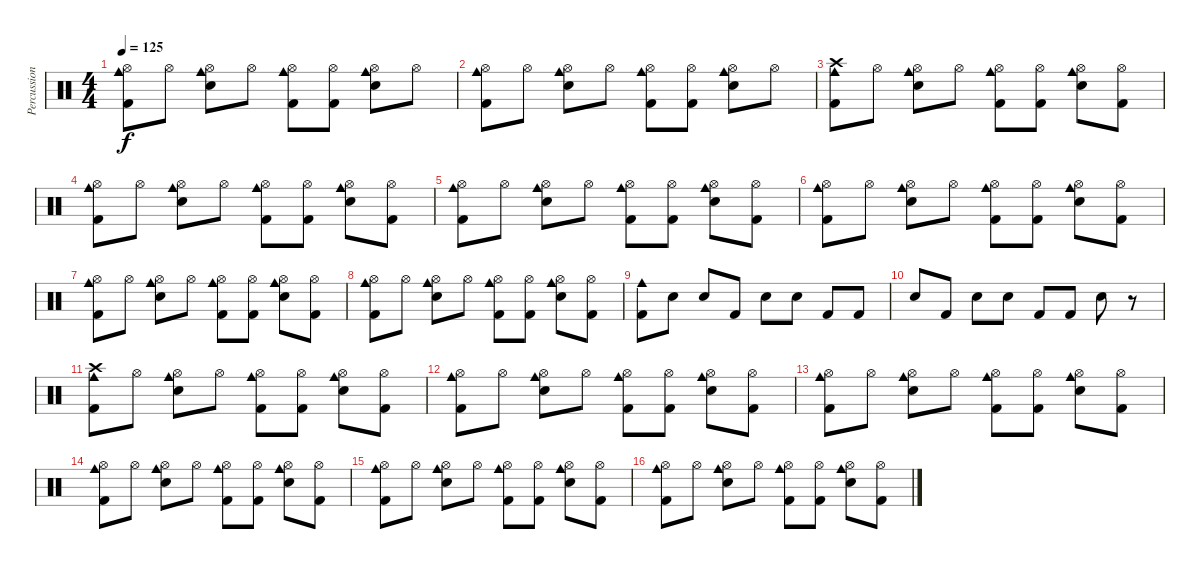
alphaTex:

\track ("Percussion" "Percussion") {instrument percussion}
\staff {score}
\articulation defaults
\ts (4 4)
\tempo 125
\clef neutral
\ks c
("Hi-Hat (open)" "Cowbell medium (hit)" "Kick (hit) 2").8{dy f} "Hi-Hat (open)".8 ("Hi-Hat (open)" "Snare (hit) 2" "Cowbell medium (hit)").8 "Hi-Hat (open)".8 ("Hi-Hat (open)" "Cowbell medium (hit)" "Kick (hit) 2").8 ("Hi-Hat (open)" "Kick (hit) 2").8 ("Hi-Hat (open)" "Snare (hit) 2" "Cowbell medium (hit)").8 "Hi-Hat (open)".8 |
("Hi-Hat (open)" "Cowbell medium (hit)" "Kick (hit) 2").8 "Hi-Hat (open)".8 ("Hi-Hat (open)" "Snare (hit) 2" "Cowbell medium (hit)").8 "Hi-Hat (open)".8 ("Hi-Hat (open)" "Cowbell medium (hit)" "Kick (hit) 2").8 ("Hi-Hat (open)" "Kick (hit) 2").8 ("Hi-Hat (open)" "Snare (hit) 2" "Cowbell medium (hit)").8 "Hi-Hat (open)".8 |
("Crash high (hit)" "Cowbell medium (hit)" "Kick (hit) 2").8 "Hi-Hat (open)".8 ("Hi-Hat (open)" "Snare (hit) 2" "Cowbell medium (hit)").8 "Hi-Hat (open)".8 ("Hi-Hat (open)" "Cowbell medium (hit)" "Kick (hit) 2").8 ("Hi-Hat (open)" "Kick (hit) 2").8 ("Hi-Hat (open)" "Snare (hit) 2" "Cowbell medium (hit)").8 ("Hi-Hat (open)" "Kick (hit) 2").8 |
("Hi-Hat (open)" "Cowbell medium (hit)" "Kick (hit) 2").8 "Hi-Hat (open)".8 ("Hi-Hat (open)" "Snare (hit) 2" "Cowbell medium (hit)").8 "Hi-Hat (open)".8 ("Hi-Hat (open)" "Cowbell medium (hit)" "Kick (hit) 2").8 ("Hi-Hat (open)" "Kick (hit) 2").8 ("Hi-Hat (open)" "Snare (hit) 2" "Cowbell medium (hit)").8 ("Hi-Hat (open)" "Kick (hit) 2").8 |
("Hi-Hat (open)" "Cowbell medium (hit)" "Kick (hit) 2").8 "Hi-Hat (open)".8 ("Hi-Hat (open)" "Snare (hit) 2" "Cowbell medium (hit)").8 "Hi-Hat (open)".8 ("Hi-Hat (open)" "Cowbell medium (hit)" "Kick (hit) 2").8 ("Hi-Hat (open)" "Kick (hit) 2").8 ("Hi-Hat (open)" "Snare (hit) 2" "Cowbell medium (hit)").8 ("Hi-Hat (open)" "Kick (hit) 2").8 |
("Hi-Hat (open)" "Cowbell medium (hit)" "Kick (hit) 2").8 "Hi-Hat (open)".8 ("Hi-Hat (open)" "Snare (hit) 2" "Cowbell medium (hit)").8 "Hi-Hat (open)".8 ("Hi-Hat (open)" "Cowbell medium (hit)" "Kick (hit) 2").8 ("Hi-Hat (open)" "Kick (hit) 2").8 ("Hi-Hat (open)" "Snare (hit) 2" "Cowbell medium (hit)").8 ("Hi-Hat (open)" "Kick (hit) 2").8 |
("Hi-Hat (open)" "Cowbell medium (hit)" "Kick (hit) 2").8 "Hi-Hat (open)".8 ("Hi-Hat (open)" "Snare (hit) 2" "Cowbell medium (hit)").8 "Hi-Hat (open)".8 ("Hi-Hat (open)" "Cowbell medium (hit)" "Kick (hit) 2").8 ("Hi-Hat (open)" "Kick (hit) 2").8 ("Hi-Hat (open)" "Snare (hit) 2" "Cowbell medium (hit)").8 ("Hi-Hat (open)" "Kick (hit) 2").8 |
("Hi-Hat (open)" "Cowbell medium (hit)" "Kick (hit) 2").8 "Hi-Hat (open)".8 ("Hi-Hat (open)" "Snare (hit) 2" "Cowbell medium (hit)").8 "Hi-Hat (open)".8 ("Hi-Hat (open)" "Cowbell medium (hit)" "Kick (hit) 2").8 ("Hi-Hat (open)" "Kick (hit) 2").8 ("Hi-Hat (open)" "Snare (hit) 2" "Cowbell medium (hit)").8 ("Hi-Hat (open)" "Kick (hit) 2").8 |
("Cowbell medium (hit)" "Kick (hit) 2").8 "Snare (hit) 2".8 "Snare (hit) 2".8 "Kick (hit) 2".8 "Snare (hit) 2".8 "Snare (hit) 2".8 "Kick (hit) 2".8 "Kick (hit) 2".8 |
"Snare (hit) 2".8 "Kick (hit) 2".8 "Snare (hit) 2".8 "Snare (hit) 2".8 "Kick (hit) 2".8 "Kick (hit) 2".8 "Snare (hit) 2".8 r.8 |
("Crash high (hit)" "Cowbell medium (hit)" "Kick (hit) 2").8 "Hi-Hat (open)".8 ("Hi-Hat (open)" "Snare (hit) 2" "Cowbell medium (hit)").8 "Hi-Hat (open)".8 ("Hi-Hat (open)" "Cowbell medium (hit)" "Kick (hit) 2").8 ("Hi-Hat (open)" "Kick (hit) 2").8 ("Hi-Hat (open)" "Snare (hit) 2" "Cowbell medium (hit)").8 ("Hi-Hat (open)" "Kick (hit) 2").8 |
("Hi-Hat (open)" "Cowbell medium (hit)" "Kick (hit) 2").8 "Hi-Hat (open)".8 ("Hi-Hat (open)" "Snare (hit) 2" "Cowbell medium (hit)").8 "Hi-Hat (open)".8 ("Hi-Hat (open)" "Cowbell medium (hit)" "Kick (hit) 2").8 ("Hi-Hat (open)" "Kick (hit) 2").8 ("Hi-Hat (open)" "Snare (hit) 2" "Cowbell medium (hit)").8 ("Hi-Hat (open)" "Kick (hit) 2").8 |
("Hi-Hat (open)" "Cowbell medium (hit)" "Kick (hit) 2").8 "Hi-Hat (open)".8 ("Hi-Hat (open)" "Snare (hit) 2" "Cowbell medium (hit)").8 "Hi-Hat (open)".8 ("Hi-Hat (open)" "Cowbell medium (hit)" "Kick (hit) 2").8 ("Hi-Hat (open)" "Kick (hit) 2").8 ("Hi-Hat (open)" "Snare (hit) 2" "Cowbell medium (hit)").8 ("Hi-Hat (open)" "Kick (hit) 2").8 |
("Hi-Hat (open)" "Cowbell medium (hit)" "Kick (hit) 2").8 "Hi-Hat (open)".8 ("Hi-Hat (open)" "Snare (hit) 2" "Cowbell medium (hit)").8 "Hi-Hat (open)".8 ("Hi-Hat (open)" "Cowbell medium (hit)" "Kick (hit) 2").8 ("Hi-Hat (open)" "Kick (hit) 2").8 ("Hi-Hat (open)" "Snare (hit) 2" "Cowbell medium (hit)").8 ("Hi-Hat (open)" "Kick (hit) 2").8 |
("Hi-Hat (open)" "Cowbell medium (hit)" "Kick (hit) 2").8 "Hi-Hat (open)".8 ("Hi-Hat (open)" "Snare (hit) 2" "Cowbell medium (hit)").8 "Hi-Hat (open)".8 ("Hi-Hat (open)" "Cowbell medium (hit)" "Kick (hit) 2").8 ("Hi-Hat (open)" "Kick (hit) 2").8 ("Hi-Hat (open)" "Snare (hit) 2" "Cowbell medium (hit)").8 ("Hi-Hat (open)" "Kick (hit) 2").8 |
("Hi-Hat (open)" "Cowbell medium (hit)" "Kick (hit) 2").8 "Hi-Hat (open)".8 ("Hi-Hat (open)" "Snare (hit) 2" "Cowbell medium (hit)").8 "Hi-Hat (open)".8 ("Hi-Hat (open)" "Cowbell medium (hit)" "Kick (hit) 2").8 ("Hi-Hat (open)" "Kick (hit) 2").8 ("Hi-Hat (open)" "Snare (hit) 2" "Cowbell medium (hit)").8 ("Hi-Hat (open)" "Kick (hit) 2").8
